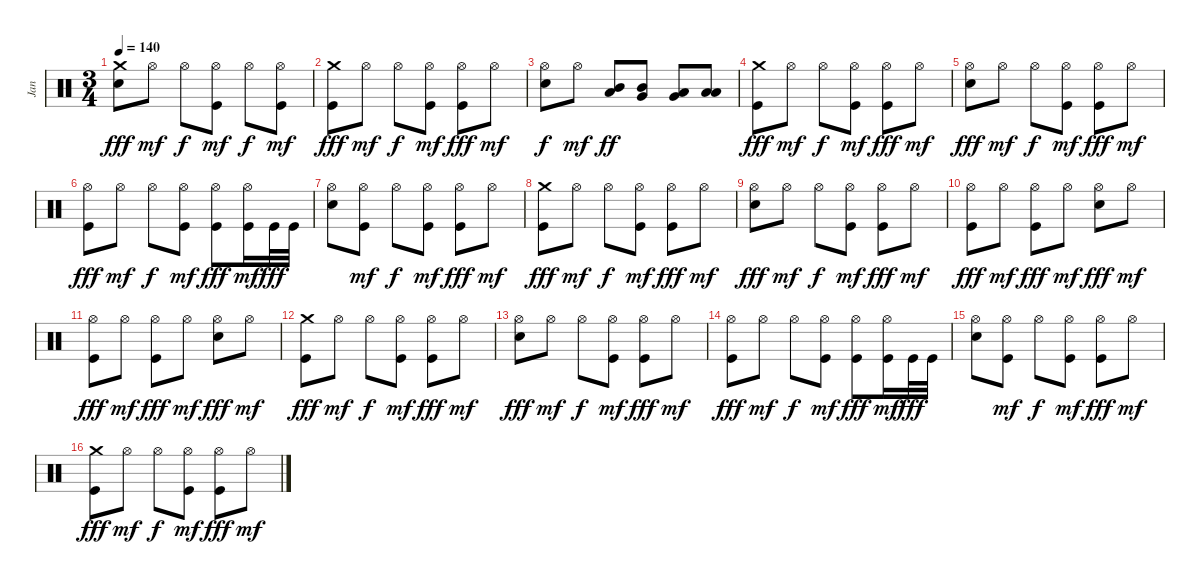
\track ("Jan" "Jan") {instrument percussion}
\staff {score}
\articulation defaults
\ts (3 4)
\tempo 140
\clef neutral
\ks c
("Snare (hit) 2" "Crash medium (hit)").8{dy fff} "Hi-Hat (open)".8{dy mf} "Hi-Hat (open)".8{dy f} ("Kick (hit)" "Hi-Hat (open)").8{dy mf} "Hi-Hat (open)".8{dy f} ("Kick (hit)" "Hi-Hat (open)").8{dy mf} |
("Kick (hit)" "Crash medium (hit)").8{dy fff} "Hi-Hat (open)".8{dy mf} "Hi-Hat (open)".8{dy f} ("Kick (hit)" "Hi-Hat (open)").8{dy mf} ("Kick (hit)" "Hi-Hat (open)").8{dy fff} "Hi-Hat (open)".8{dy mf} |
("Snare (hit) 2" "Hi-Hat (open)").8{dy f} "Hi-Hat (open)".8{dy mf} ("Mid Tom (hit)" "Low Tom (hit)").8{dy ff} ("Mid Tom (hit)" "Very Low Tom (hit)").8 ("Low Tom (hit)" "Very Low Tom (hit)").8 ("Low Tom (hit)" "Low Floor Tom (hit)").8 |
("Kick (hit)" "Crash medium (hit)").8{dy fff} "Hi-Hat (open)".8{dy mf} "Hi-Hat (open)".8{dy f} ("Kick (hit)" "Hi-Hat (open)").8{dy mf} ("Kick (hit)" "Hi-Hat (open)").8{dy fff} "Hi-Hat (open)".8{dy mf} |
("Snare (hit) 2" "Hi-Hat (open)").8{dy fff} "Hi-Hat (open)".8{dy mf} "Hi-Hat (open)".8{dy f} ("Kick (hit)" "Hi-Hat (open)").8{dy mf} ("Kick (hit)" "Hi-Hat (open)").8{dy fff} "Hi-Hat (open)".8{dy mf} |
("Kick (hit)" "Hi-Hat (open)").8{dy fff} "Hi-Hat (open)".8{dy mf} "Hi-Hat (open)".8{dy f} ("Kick (hit)" "Hi-Hat (open)").8{dy mf} ("Kick (hit)" "Hi-Hat (open)").8{dy fff} ("Kick (hit)" "Hi-Hat (open)").16{dy mf} "Kick (hit)".32{dy fff} "Kick (hit)".32 |
("Snare (hit) 2" "Hi-Hat (open)").8 ("Kick (hit)" "Hi-Hat (open)").8{dy mf} "Hi-Hat (open)".8{dy f} ("Kick (hit)" "Hi-Hat (open)").8{dy mf} ("Kick (hit)" "Hi-Hat (open)").8{dy fff} "Hi-Hat (open)".8{dy mf} |
("Kick (hit)" "Crash medium (hit)").8{dy fff} "Hi-Hat (open)".8{dy mf} "Hi-Hat (open)".8{dy f} ("Kick (hit)" "Hi-Hat (open)").8{dy mf} ("Kick (hit)" "Hi-Hat (open)").8{dy fff} "Hi-Hat (open)".8{dy mf} |
("Snare (hit) 2" "Hi-Hat (open)").8{dy fff} "Hi-Hat (open)".8{dy mf} "Hi-Hat (open)".8{dy f} ("Kick (hit)" "Hi-Hat (open)").8{dy mf} ("Kick (hit)" "Hi-Hat (open)").8{dy fff} "Hi-Hat (open)".8{dy mf} |
("Kick (hit)" "Hi-Hat (open)").8{dy fff} "Hi-Hat (open)".8{dy mf} ("Kick (hit)" "Hi-Hat (open)").8{dy fff} "Hi-Hat (open)".8{dy mf} ("Snare (hit) 2" "Hi-Hat (open)").8{dy fff} "Hi-Hat (open)".8{dy mf} |
("Kick (hit)" "Hi-Hat (open)").8{dy fff} "Hi-Hat (open)".8{dy mf} ("Kick (hit)" "Hi-Hat (open)").8{dy fff} "Hi-Hat (open)".8{dy mf} ("Snare (hit) 2" "Hi-Hat (open)").8{dy fff} "Hi-Hat (open)".8{dy mf} |
("Kick (hit)" "Crash medium (hit)").8{dy fff} "Hi-Hat (open)".8{dy mf} "Hi-Hat (open)".8{dy f} ("Kick (hit)" "Hi-Hat (open)").8{dy mf} ("Kick (hit)" "Hi-Hat (open)").8{dy fff} "Hi-Hat (open)".8{dy mf} |
("Snare (hit) 2" "Hi-Hat (open)").8{dy fff} "Hi-Hat (open)".8{dy mf} "Hi-Hat (open)".8{dy f} ("Kick (hit)" "Hi-Hat (open)").8{dy mf} ("Kick (hit)" "Hi-Hat (open)").8{dy fff} "Hi-Hat (open)".8{dy mf} |
("Kick (hit)" "Hi-Hat (open)").8{dy fff} "Hi-Hat (open)".8{dy mf} "Hi-Hat (open)".8{dy f} ("Kick (hit)" "Hi-Hat (open)").8{dy mf} ("Kick (hit)" "Hi-Hat (open)").8{dy fff} ("Kick (hit)" "Hi-Hat (open)").16{dy mf} "Kick (hit)".32{dy fff} "Kick (hit)".32 |
("Snare (hit) 2" "Hi-Hat (open)").8 ("Kick (hit)" "Hi-Hat (open)").8{dy mf} "Hi-Hat (open)".8{dy f} ("Kick (hit)" "Hi-Hat (open)").8{dy mf} ("Kick (hit)" "Hi-Hat (open)").8{dy fff} "Hi-Hat (open)".8{dy mf} |
("Kick (hit)" "Crash medium (hit)").8{dy fff} "Hi-Hat (open)".8{dy mf} "Hi-Hat (open)".8{dy f} ("Kick (hit)" "Hi-Hat (open)").8{dy mf} ("Kick (hit)" "Hi-Hat (open)").8{dy fff} "Hi-Hat (open)".8{dy mf}
